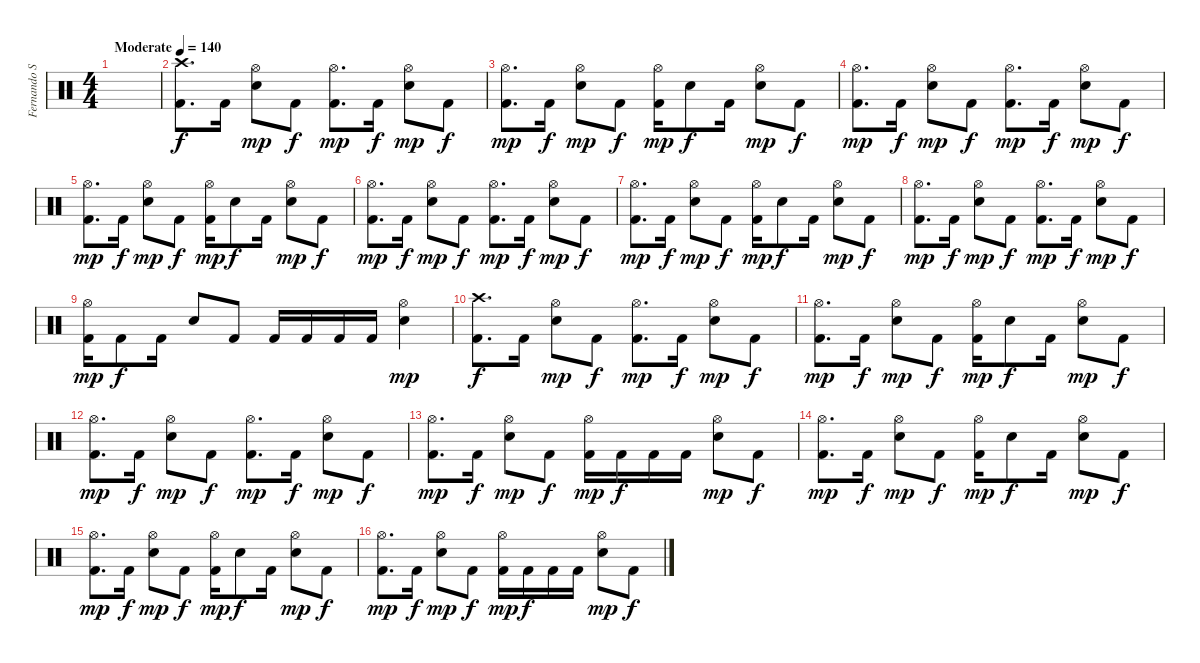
\track ("Fernando Scarcella" "Fernando S") {instrument percussion}
\staff {score}
\articulation defaults
\ts (4 4)
\tempo (140 "Moderate")
\clef neutral
\ks c
|
("Crash high (hit)" "Kick (hit) 2").8{d} "Kick (hit) 2".16 ("Hi-Hat (open)" "Snare (hit) 2").8{dy mp} "Kick (hit) 2".8{dy f} ("Hi-Hat (open)" "Kick (hit) 2").8{d dy mp} "Kick (hit) 2".16{dy f} ("Hi-Hat (open)" "Snare (hit) 2").8{dy mp} "Kick (hit) 2".8{dy f} |
("Hi-Hat (open)" "Kick (hit) 2").8{d dy mp} "Kick (hit) 2".16{dy f} ("Hi-Hat (open)" "Snare (hit) 2").8{dy mp} "Kick (hit) 2".8{dy f} ("Hi-Hat (open)" "Kick (hit) 2").16{dy mp} "Snare (hit) 2".8{dy f} "Kick (hit) 2".16 ("Hi-Hat (open)" "Snare (hit) 2").8{dy mp} "Kick (hit) 2".8{dy f} |
("Hi-Hat (open)" "Kick (hit) 2").8{d dy mp} "Kick (hit) 2".16{dy f} ("Hi-Hat (open)" "Snare (hit) 2").8{dy mp} "Kick (hit) 2".8{dy f} ("Hi-Hat (open)" "Kick (hit) 2").8{d dy mp} "Kick (hit) 2".16{dy f} ("Hi-Hat (open)" "Snare (hit) 2").8{dy mp} "Kick (hit) 2".8{dy f} |
("Hi-Hat (open)" "Kick (hit) 2").8{d dy mp} "Kick (hit) 2".16{dy f} ("Hi-Hat (open)" "Snare (hit) 2").8{dy mp} "Kick (hit) 2".8{dy f} ("Hi-Hat (open)" "Kick (hit) 2").16{dy mp} "Snare (hit) 2".8{dy f} "Kick (hit) 2".16 ("Hi-Hat (open)" "Snare (hit) 2").8{dy mp} "Kick (hit) 2".8{dy f} |
("Hi-Hat (open)" "Kick (hit) 2").8{d dy mp} "Kick (hit) 2".16{dy f} ("Hi-Hat (open)" "Snare (hit) 2").8{dy mp} "Kick (hit) 2".8{dy f} ("Hi-Hat (open)" "Kick (hit) 2").8{d dy mp} "Kick (hit) 2".16{dy f} ("Hi-Hat (open)" "Snare (hit) 2").8{dy mp} "Kick (hit) 2".8{dy f} |
("Hi-Hat (open)" "Kick (hit) 2").8{d dy mp} "Kick (hit) 2".16{dy f} ("Hi-Hat (open)" "Snare (hit) 2").8{dy mp} "Kick (hit) 2".8{dy f} ("Hi-Hat (open)" "Kick (hit) 2").16{dy mp} "Snare (hit) 2".8{dy f} "Kick (hit) 2".16 ("Hi-Hat (open)" "Snare (hit) 2").8{dy mp} "Kick (hit) 2".8{dy f} |
("Hi-Hat (open)" "Kick (hit) 2").8{d dy mp} "Kick (hit) 2".16{dy f} ("Hi-Hat (open)" "Snare (hit) 2").8{dy mp} "Kick (hit) 2".8{dy f} ("Hi-Hat (open)" "Kick (hit) 2").8{d dy mp} "Kick (hit) 2".16{dy f} ("Hi-Hat (open)" "Snare (hit) 2").8{dy mp} "Kick (hit) 2".8{dy f} |
("Hi-Hat (open)" "Kick (hit) 2").16{dy mp} "Kick (hit) 2".8{dy f} "Kick (hit) 2".16 "Snare (hit) 2".8 "Kick (hit) 2".8 "Kick (hit) 2".16 "Kick (hit) 2".16 "Kick (hit) 2".16 "Kick (hit) 2".16 ("Hi-Hat (open)" "Snare (hit) 2").4{dy mp} |
("Crash high (hit)" "Kick (hit) 2").8{d dy f} "Kick (hit) 2".16 ("Hi-Hat (open)" "Snare (hit) 2").8{dy mp} "Kick (hit) 2".8{dy f} ("Hi-Hat (open)" "Kick (hit) 2").8{d dy mp} "Kick (hit) 2".16{dy f} ("Hi-Hat (open)" "Snare (hit) 2").8{dy mp} "Kick (hit) 2".8{dy f} |
("Hi-Hat (open)" "Kick (hit) 2").8{d dy mp} "Kick (hit) 2".16{dy f} ("Hi-Hat (open)" "Snare (hit) 2").8{dy mp} "Kick (hit) 2".8{dy f} ("Hi-Hat (open)" "Kick (hit) 2").16{dy mp} "Snare (hit) 2".8{dy f} "Kick (hit) 2".16 ("Hi-Hat (open)" "Snare (hit) 2").8{dy mp} "Kick (hit) 2".8{dy f} |
("Hi-Hat (open)" "Kick (hit) 2").8{d dy mp} "Kick (hit) 2".16{dy f} ("Hi-Hat (open)" "Snare (hit) 2").8{dy mp} "Kick (hit) 2".8{dy f} ("Hi-Hat (open)" "Kick (hit) 2").8{d dy mp} "Kick (hit) 2".16{dy f} ("Hi-Hat (open)" "Snare (hit) 2").8{dy mp} "Kick (hit) 2".8{dy f} |
("Hi-Hat (open)" "Kick (hit) 2").8{d dy mp} "Kick (hit) 2".16{dy f} ("Hi-Hat (open)" "Snare (hit) 2").8{dy mp} "Kick (hit) 2".8{dy f} ("Hi-Hat (open)" "Kick (hit) 2").16{dy mp} "Kick (hit) 2".16{dy f} "Kick (hit) 2".16 "Kick (hit) 2".16 ("Hi-Hat (open)" "Snare (hit) 2").8{dy mp} "Kick (hit) 2".8{dy f} |
("Hi-Hat (open)" "Kick (hit) 2").8{d dy mp} "Kick (hit) 2".16{dy f} ("Hi-Hat (open)" "Snare (hit) 2").8{dy mp} "Kick (hit) 2".8{dy f} ("Hi-Hat (open)" "Kick (hit) 2").16{dy mp} "Snare (hit) 2".8{dy f} "Kick (hit) 2".16 ("Hi-Hat (open)" "Snare (hit) 2").8{dy mp} "Kick (hit) 2".8{dy f} |
("Hi-Hat (open)" "Kick (hit) 2").8{d dy mp} "Kick (hit) 2".16{dy f} ("Hi-Hat (open)" "Snare (hit) 2").8{dy mp} "Kick (hit) 2".8{dy f} ("Hi-Hat (open)" "Kick (hit) 2").16{dy mp} "Snare (hit) 2".8{dy f} "Kick (hit) 2".16 ("Hi-Hat (open)" "Snare (hit) 2").8{dy mp} "Kick (hit) 2".8{dy f} |
("Hi-Hat (open)" "Kick (hit) 2").8{d dy mp} "Kick (hit) 2".16{dy f} ("Hi-Hat (open)" "Snare (hit) 2").8{dy mp} "Kick (hit) 2".8{dy f} ("Hi-Hat (open)" "Kick (hit) 2").16{dy mp} "Kick (hit) 2".16{dy f} "Kick (hit) 2".16 "Kick (hit) 2".16 ("Hi-Hat (open)" "Snare (hit) 2").8{dy mp} "Kick (hit) 2".8{dy f}
